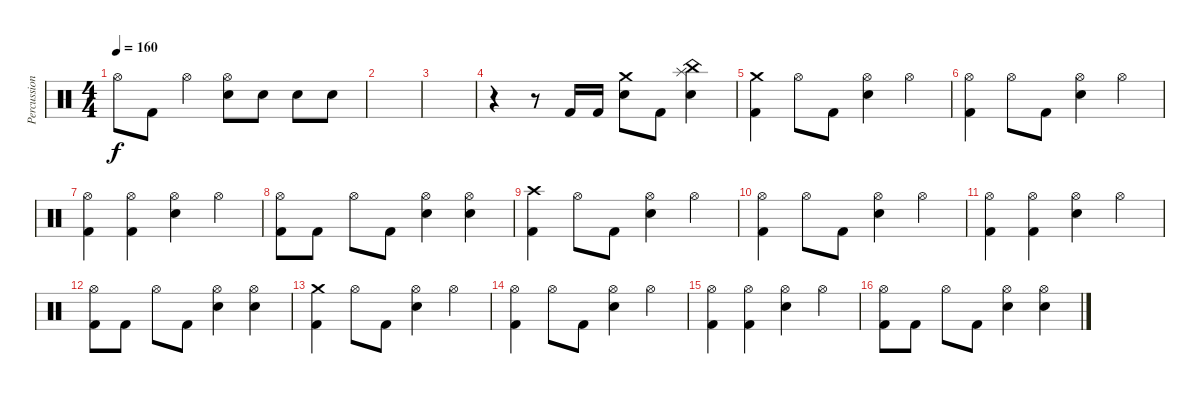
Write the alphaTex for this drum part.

\track ("Percussioni" "Percussion") {instrument percussion}
\staff {score}
\articulation defaults
\ts (4 4)
\tempo 160
\clef neutral
\ks c "Hi-Hat (open)".8{dy f} "Kick (hit) 2".8 "Hi-Hat (open)".4
("Hi-Hat (open)" "Electric Snare (hit)").8 "Electric Snare (hit)".8 "Electric Snare (hit)".8 "Electric Snare (hit)".8 |
|
|
r.4 r.8 "Kick (hit) 2".16 "Kick (hit) 2".16 ("Crash medium (hit)" "Electric Snare (hit)").8 "Kick (hit) 2".8 ("China (hit)" "Splash (hit)" "Electric Snare (hit)").4 |
("Crash medium (hit)" "Kick (hit) 2").4 "Hi-Hat (open)".8 "Kick (hit) 2".8 ("Hi-Hat (open)" "Electric Snare (hit)").4 "Hi-Hat (open)".4 |
("Hi-Hat (open)" "Kick (hit) 2").4 "Hi-Hat (open)".8 "Kick (hit) 2".8 ("Hi-Hat (open)" "Electric Snare (hit)").4 "Hi-Hat (open)".4 |
("Hi-Hat (open)" "Kick (hit) 2").4 ("Hi-Hat (open)" "Kick (hit) 2").4 ("Hi-Hat (open)" "Electric Snare (hit)").4 "Hi-Hat (open)".4 |
("Hi-Hat (open)" "Kick (hit) 2").8 "Kick (hit) 2".8 "Hi-Hat (open)".8 "Kick (hit) 2".8 ("Hi-Hat (open)" "Electric Snare (hit)").4 ("Hi-Hat (open)" "Electric Snare (hit)").4 |
("Crash high (hit)" "Kick (hit) 2").4 "Hi-Hat (open)".8 "Kick (hit) 2".8 ("Hi-Hat (open)" "Electric Snare (hit)").4 "Hi-Hat (open)".4 |
("Hi-Hat (open)" "Kick (hit) 2").4 "Hi-Hat (open)".8 "Kick (hit) 2".8 ("Hi-Hat (open)" "Electric Snare (hit)").4 "Hi-Hat (open)".4 |
("Hi-Hat (open)" "Kick (hit) 2").4 ("Hi-Hat (open)" "Kick (hit) 2").4 ("Hi-Hat (open)" "Electric Snare (hit)").4 "Hi-Hat (open)".4 |
("Hi-Hat (open)" "Kick (hit) 2").8 "Kick (hit) 2".8 "Hi-Hat (open)".8 "Kick (hit) 2".8 ("Hi-Hat (open)" "Electric Snare (hit)").4 ("Hi-Hat (open)" "Electric Snare (hit)").4 |
("Crash medium (hit)" "Kick (hit) 2").4 "Hi-Hat (open)".8 "Kick (hit) 2".8 ("Hi-Hat (open)" "Electric Snare (hit)").4 "Hi-Hat (open)".4 |
("Hi-Hat (open)" "Kick (hit) 2").4 "Hi-Hat (open)".8 "Kick (hit) 2".8 ("Hi-Hat (open)" "Electric Snare (hit)").4 "Hi-Hat (open)".4 |
("Hi-Hat (open)" "Kick (hit) 2").4 ("Hi-Hat (open)" "Kick (hit) 2").4 ("Hi-Hat (open)" "Electric Snare (hit)").4 "Hi-Hat (open)".4 |
("Hi-Hat (open)" "Kick (hit) 2").8 "Kick (hit) 2".8 "Hi-Hat (open)".8 "Kick (hit) 2".8 ("Hi-Hat (open)" "Electric Snare (hit)").4 ("Hi-Hat (open)" "Electric Snare (hit)").4
